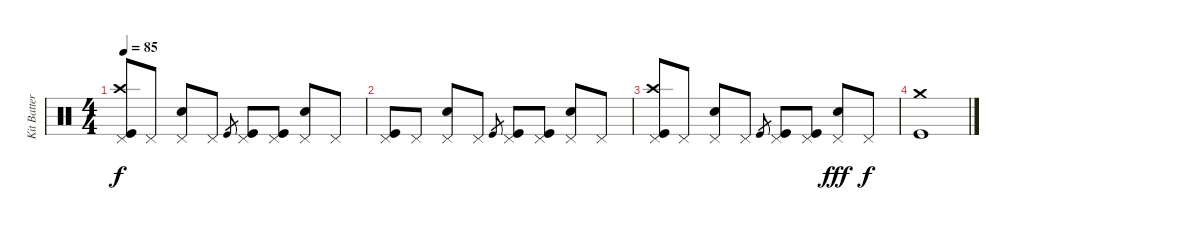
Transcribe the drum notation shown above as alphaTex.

\track ("Kit Batterie 1" "Kit Batter") {instrument percussion}
\staff {score}
\articulation defaults
\ts (4 4)
\tempo 85
\clef neutral
\ks c
("Pedal Hi-Hat (hit)" "Crash high (hit)" "Kick (hit)").8{dy f} "Pedal Hi-Hat (hit)".8 ("Pedal Hi-Hat (hit)" "Electric Snare (hit)").8 "Pedal Hi-Hat (hit)".8 "Kick (hit)".8{gr} ("Pedal Hi-Hat (hit)" "Kick (hit)").8 ("Pedal Hi-Hat (hit)" "Kick (hit)").8 ("Pedal Hi-Hat (hit)" "Electric Snare (hit)").8 "Pedal Hi-Hat (hit)".8 |
("Pedal Hi-Hat (hit)" "Kick (hit)").8 "Pedal Hi-Hat (hit)".8 ("Pedal Hi-Hat (hit)" "Electric Snare (hit)").8 "Pedal Hi-Hat (hit)".8 "Kick (hit)".8{gr} ("Pedal Hi-Hat (hit)" "Kick (hit)").8 ("Pedal Hi-Hat (hit)" "Kick (hit)").8 ("Pedal Hi-Hat (hit)" "Electric Snare (hit)").8 "Pedal Hi-Hat (hit)".8 |
("Pedal Hi-Hat (hit)" "Crash high (hit)" "Kick (hit)").8 "Pedal Hi-Hat (hit)".8 ("Pedal Hi-Hat (hit)" "Electric Snare (hit)").8 "Pedal Hi-Hat (hit)".8 "Kick (hit)".8{gr} ("Pedal Hi-Hat (hit)" "Kick (hit)").8 ("Pedal Hi-Hat (hit)" "Kick (hit)").8 ("Pedal Hi-Hat (hit)" "Electric Snare (hit)").8{dy fff} "Pedal Hi-Hat (hit)".8{dy f} |
("Crash medium (hit)" "Kick (hit)").1
